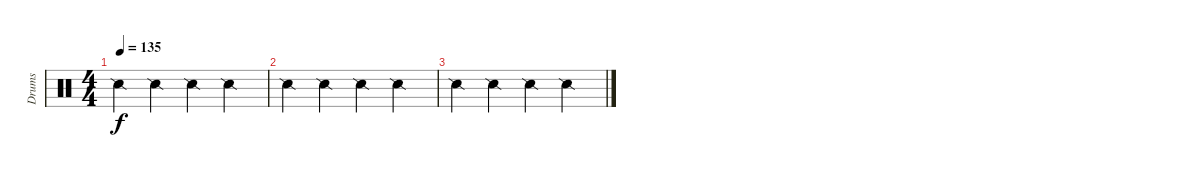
\track ("Drums" "Drums") {instrument percussion}
\staff {score}
\articulation defaults
\ts (4 4)
\tempo 135
\clef neutral
\ks c "Snare (side stick) 2".4{dy f} "Snare (side stick) 2".4 "Snare (side stick) 2".4 "Snare (side stick) 2".4
|
"Snare (side stick) 2".4 "Snare (side stick) 2".4 "Snare (side stick) 2".4 "Snare (side stick) 2".4 |
"Snare (side stick) 2".4 "Snare (side stick) 2".4 "Snare (side stick) 2".4 "Snare (side stick) 2".4
